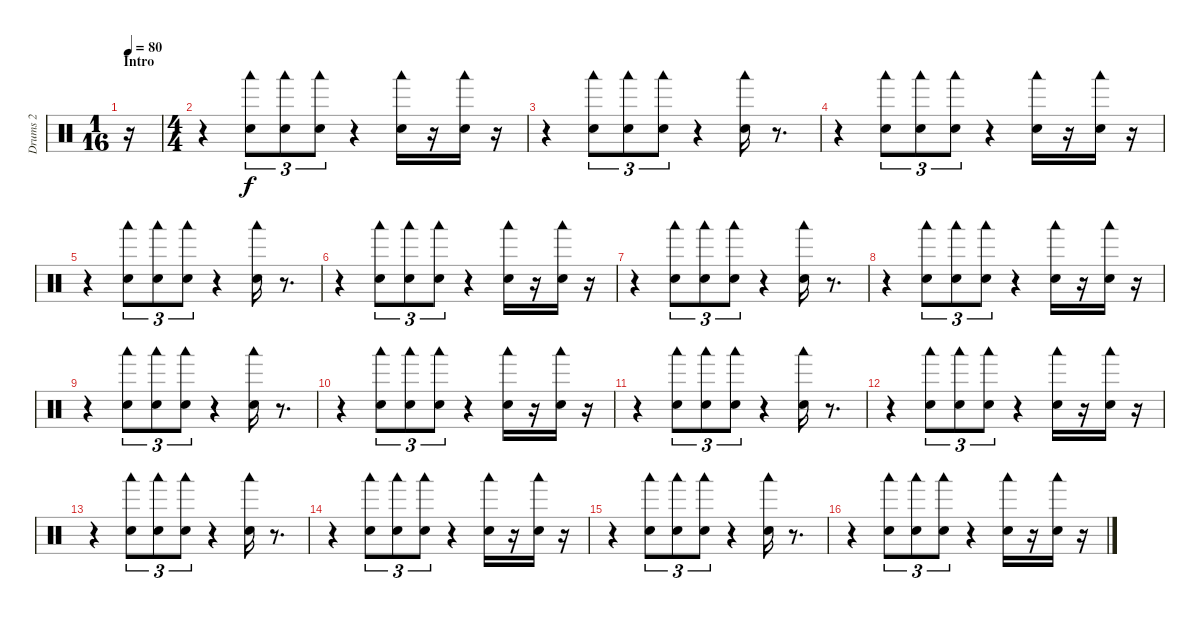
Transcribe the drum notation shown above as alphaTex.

\track ("Drums 2" "Drums 2") {instrument percussion}
\staff {score}
\articulation defaults
\ts (1 16)
\section ("" "Intro")
\tempo 80
\clef neutral
\ks c
r.16{dy f} |
\ts (4 4)
r.4 ("Woodblock low (hit)" "Electric Snare (hit)").8{tu (3 2)} ("Woodblock low (hit)" "Electric Snare (hit)").8{tu (3 2)} ("Woodblock low (hit)" "Electric Snare (hit)").8{tu (3 2)} r.4 ("Woodblock low (hit)" "Electric Snare (hit)").16 r.16 ("Woodblock low (hit)" "Electric Snare (hit)").16 r.16 |
r.4 ("Woodblock low (hit)" "Electric Snare (hit)").8{tu (3 2)} ("Woodblock low (hit)" "Electric Snare (hit)").8{tu (3 2)} ("Woodblock low (hit)" "Electric Snare (hit)").8{tu (3 2)} r.4 ("Woodblock low (hit)" "Electric Snare (hit)").16 r.8{d} |
r.4 ("Woodblock low (hit)" "Electric Snare (hit)").8{tu (3 2)} ("Woodblock low (hit)" "Electric Snare (hit)").8{tu (3 2)} ("Woodblock low (hit)" "Electric Snare (hit)").8{tu (3 2)} r.4 ("Woodblock low (hit)" "Electric Snare (hit)").16 r.16 ("Woodblock low (hit)" "Electric Snare (hit)").16 r.16 |
r.4 ("Woodblock low (hit)" "Electric Snare (hit)").8{tu (3 2)} ("Woodblock low (hit)" "Electric Snare (hit)").8{tu (3 2)} ("Woodblock low (hit)" "Electric Snare (hit)").8{tu (3 2)} r.4 ("Woodblock low (hit)" "Electric Snare (hit)").16 r.8{d} |
r.4 ("Woodblock low (hit)" "Electric Snare (hit)").8{tu (3 2)} ("Woodblock low (hit)" "Electric Snare (hit)").8{tu (3 2)} ("Woodblock low (hit)" "Electric Snare (hit)").8{tu (3 2)} r.4 ("Woodblock low (hit)" "Electric Snare (hit)").16 r.16 ("Woodblock low (hit)" "Electric Snare (hit)").16 r.16 |
r.4 ("Woodblock low (hit)" "Electric Snare (hit)").8{tu (3 2)} ("Woodblock low (hit)" "Electric Snare (hit)").8{tu (3 2)} ("Woodblock low (hit)" "Electric Snare (hit)").8{tu (3 2)} r.4 ("Woodblock low (hit)" "Electric Snare (hit)").16 r.8{d} |
r.4 ("Woodblock low (hit)" "Electric Snare (hit)").8{tu (3 2)} ("Woodblock low (hit)" "Electric Snare (hit)").8{tu (3 2)} ("Woodblock low (hit)" "Electric Snare (hit)").8{tu (3 2)} r.4 ("Woodblock low (hit)" "Electric Snare (hit)").16 r.16 ("Woodblock low (hit)" "Electric Snare (hit)").16 r.16 |
r.4 ("Woodblock low (hit)" "Electric Snare (hit)").8{tu (3 2)} ("Woodblock low (hit)" "Electric Snare (hit)").8{tu (3 2)} ("Woodblock low (hit)" "Electric Snare (hit)").8{tu (3 2)} r.4 ("Woodblock low (hit)" "Electric Snare (hit)").16 r.8{d} |
r.4 ("Woodblock low (hit)" "Electric Snare (hit)").8{tu (3 2)} ("Woodblock low (hit)" "Electric Snare (hit)").8{tu (3 2)} ("Woodblock low (hit)" "Electric Snare (hit)").8{tu (3 2)} r.4 ("Woodblock low (hit)" "Electric Snare (hit)").16 r.16 ("Woodblock low (hit)" "Electric Snare (hit)").16 r.16 |
r.4 ("Woodblock low (hit)" "Electric Snare (hit)").8{tu (3 2)} ("Woodblock low (hit)" "Electric Snare (hit)").8{tu (3 2)} ("Woodblock low (hit)" "Electric Snare (hit)").8{tu (3 2)} r.4 ("Woodblock low (hit)" "Electric Snare (hit)").16 r.8{d} |
r.4 ("Woodblock low (hit)" "Electric Snare (hit)").8{tu (3 2)} ("Woodblock low (hit)" "Electric Snare (hit)").8{tu (3 2)} ("Woodblock low (hit)" "Electric Snare (hit)").8{tu (3 2)} r.4 ("Woodblock low (hit)" "Electric Snare (hit)").16 r.16 ("Woodblock low (hit)" "Electric Snare (hit)").16 r.16 |
r.4 ("Woodblock low (hit)" "Electric Snare (hit)").8{tu (3 2)} ("Woodblock low (hit)" "Electric Snare (hit)").8{tu (3 2)} ("Woodblock low (hit)" "Electric Snare (hit)").8{tu (3 2)} r.4 ("Woodblock low (hit)" "Electric Snare (hit)").16 r.8{d} |
r.4 ("Woodblock low (hit)" "Electric Snare (hit)").8{tu (3 2)} ("Woodblock low (hit)" "Electric Snare (hit)").8{tu (3 2)} ("Woodblock low (hit)" "Electric Snare (hit)").8{tu (3 2)} r.4 ("Woodblock low (hit)" "Electric Snare (hit)").16 r.16 ("Woodblock low (hit)" "Electric Snare (hit)").16 r.16 |
r.4 ("Woodblock low (hit)" "Electric Snare (hit)").8{tu (3 2)} ("Woodblock low (hit)" "Electric Snare (hit)").8{tu (3 2)} ("Woodblock low (hit)" "Electric Snare (hit)").8{tu (3 2)} r.4 ("Woodblock low (hit)" "Electric Snare (hit)").16 r.8{d} |
r.4 ("Woodblock low (hit)" "Electric Snare (hit)").8{tu (3 2)} ("Woodblock low (hit)" "Electric Snare (hit)").8{tu (3 2)} ("Woodblock low (hit)" "Electric Snare (hit)").8{tu (3 2)} r.4 ("Woodblock low (hit)" "Electric Snare (hit)").16 r.16 ("Woodblock low (hit)" "Electric Snare (hit)").16 r.16
